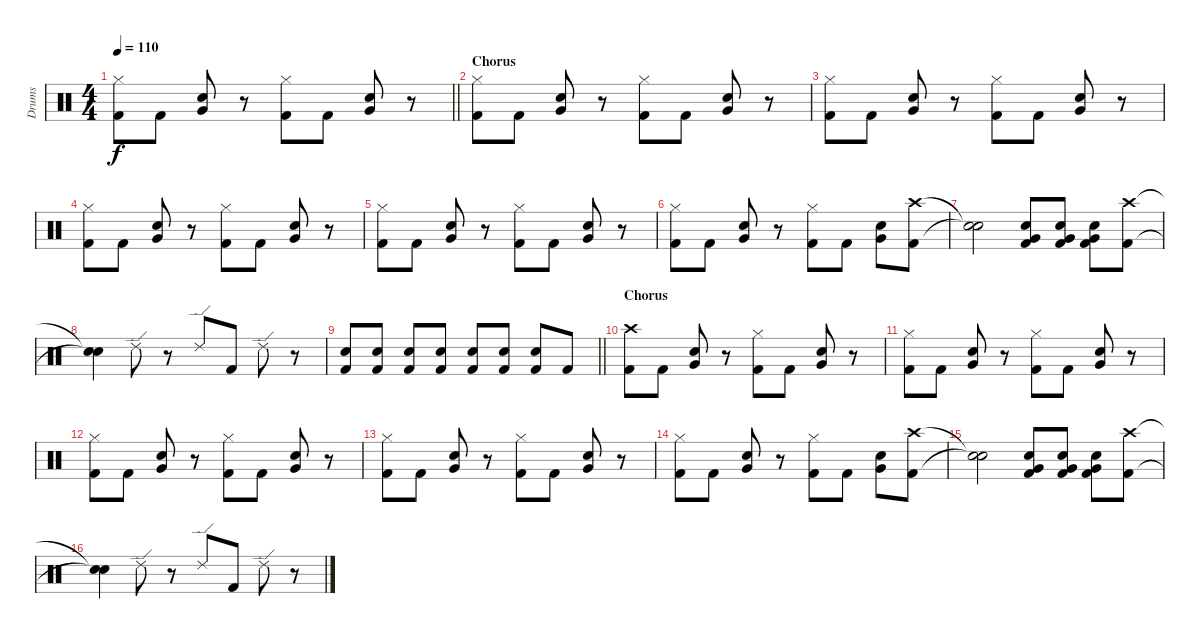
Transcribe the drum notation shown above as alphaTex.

\track ("Drums" "Drums") {instrument percussion}
\staff {score}
\articulation defaults
\ts (4 4)
\tempo 110
\clef neutral
\barLineRight lightlight
\ks c
("Hi-Hat (closed)" "Kick (hit) 2").8{dy f} "Kick (hit) 2".8 ("Snare (hit) 2" "Very Low Tom (hit)").8 r.8 ("Hi-Hat (closed)" "Kick (hit) 2").8 "Kick (hit) 2".8 ("Snare (hit) 2" "Very Low Tom (hit)").8 r.8 |
\section ("" "Chorus")
("Hi-Hat (closed)" "Kick (hit) 2").8 "Kick (hit) 2".8 ("Snare (hit) 2" "Very Low Tom (hit)").8 r.8 ("Hi-Hat (closed)" "Kick (hit) 2").8 "Kick (hit) 2".8 ("Snare (hit) 2" "Very Low Tom (hit)").8 r.8 |
("Hi-Hat (closed)" "Kick (hit) 2").8 "Kick (hit) 2".8 ("Snare (hit) 2" "Very Low Tom (hit)").8 r.8 ("Hi-Hat (closed)" "Kick (hit) 2").8 "Kick (hit) 2".8 ("Snare (hit) 2" "Very Low Tom (hit)").8 r.8 |
("Hi-Hat (closed)" "Kick (hit) 2").8 "Kick (hit) 2".8 ("Snare (hit) 2" "Very Low Tom (hit)").8 r.8 ("Hi-Hat (closed)" "Kick (hit) 2").8 "Kick (hit) 2".8 ("Snare (hit) 2" "Very Low Tom (hit)").8 r.8 |
("Hi-Hat (closed)" "Kick (hit) 2").8 "Kick (hit) 2".8 ("Snare (hit) 2" "Very Low Tom (hit)").8 r.8 ("Hi-Hat (closed)" "Kick (hit) 2").8 "Kick (hit) 2".8 ("Snare (hit) 2" "Very Low Tom (hit)").8 r.8 |
("Hi-Hat (closed)" "Kick (hit) 2").8 "Kick (hit) 2".8 ("Snare (hit) 2" "Very Low Tom (hit)").8 r.8 ("Hi-Hat (closed)" "Kick (hit) 2").8 "Kick (hit) 2".8 ("Snare (hit) 2" "Very Low Tom (hit)").8 ("Crash high (hit)" "Kick (hit) 2").8 |
("Snare (hit)"{t} "Snare (hit)"{t}).2 ("Electric Snare (hit)" "Very Low Tom (hit)" "Kick (hit) 2").8 ("Electric Snare (hit)" "Very Low Tom (hit)" "Kick (hit) 2").8 ("Electric Snare (hit)" "Very Low Tom (hit)" "Kick (hit) 2").8 ("Crash high (hit)" "Kick (hit) 2").8 |
("Snare (hit)"{t} "Snare (hit)"{t}).4 "Ride (edge) 2".8 r.8 "Ride (edge) 2".8 "Kick (hit) 2".8 "Ride (edge) 2".8 r.8 |
\barLineRight lightlight
("Snare (hit) 2" "Kick (hit) 2").8{volume 5} ("Snare (hit) 2" "Kick (hit) 2").8{volume 12} ("Snare (hit) 2" "Kick (hit) 2").8 ("Snare (hit) 2" "Kick (hit) 2").8 ("Snare (hit) 2" "Kick (hit) 2").8 ("Snare (hit) 2" "Kick (hit) 2").8 ("Snare (hit) 2" "Kick (hit) 2").8 "Kick (hit) 2".8 |
\section ("" "Chorus")
("Crash high (hit)" "Kick (hit) 2").8 "Kick (hit) 2".8 ("Snare (hit) 2" "Very Low Tom (hit)").8 r.8 ("Hi-Hat (closed)" "Kick (hit) 2").8 "Kick (hit) 2".8 ("Snare (hit) 2" "Very Low Tom (hit)").8 r.8 |
("Hi-Hat (closed)" "Kick (hit) 2").8 "Kick (hit) 2".8 ("Snare (hit) 2" "Very Low Tom (hit)").8 r.8 ("Hi-Hat (closed)" "Kick (hit) 2").8 "Kick (hit) 2".8 ("Snare (hit) 2" "Very Low Tom (hit)").8 r.8 |
("Hi-Hat (closed)" "Kick (hit) 2").8 "Kick (hit) 2".8 ("Snare (hit) 2" "Very Low Tom (hit)").8 r.8 ("Hi-Hat (closed)" "Kick (hit) 2").8 "Kick (hit) 2".8 ("Snare (hit) 2" "Very Low Tom (hit)").8 r.8 |
("Hi-Hat (closed)" "Kick (hit) 2").8 "Kick (hit) 2".8 ("Snare (hit) 2" "Very Low Tom (hit)").8 r.8 ("Hi-Hat (closed)" "Kick (hit) 2").8 "Kick (hit) 2".8 ("Snare (hit) 2" "Very Low Tom (hit)").8 r.8 |
("Hi-Hat (closed)" "Kick (hit) 2").8 "Kick (hit) 2".8 ("Snare (hit) 2" "Very Low Tom (hit)").8 r.8 ("Hi-Hat (closed)" "Kick (hit) 2").8 "Kick (hit) 2".8 ("Snare (hit) 2" "Very Low Tom (hit)").8 ("Crash high (hit)" "Kick (hit) 2").8 |
("Snare (hit)"{t} "Snare (hit)"{t}).2 ("Electric Snare (hit)" "Very Low Tom (hit)" "Kick (hit) 2").8 ("Electric Snare (hit)" "Very Low Tom (hit)" "Kick (hit) 2").8 ("Electric Snare (hit)" "Very Low Tom (hit)" "Kick (hit) 2").8 ("Crash high (hit)" "Kick (hit) 2").8 |
("Snare (hit)"{t} "Snare (hit)"{t}).4 "Ride (edge) 2".8 r.8 "Ride (edge) 2".8 "Kick (hit) 2".8 "Ride (edge) 2".8 r.8
